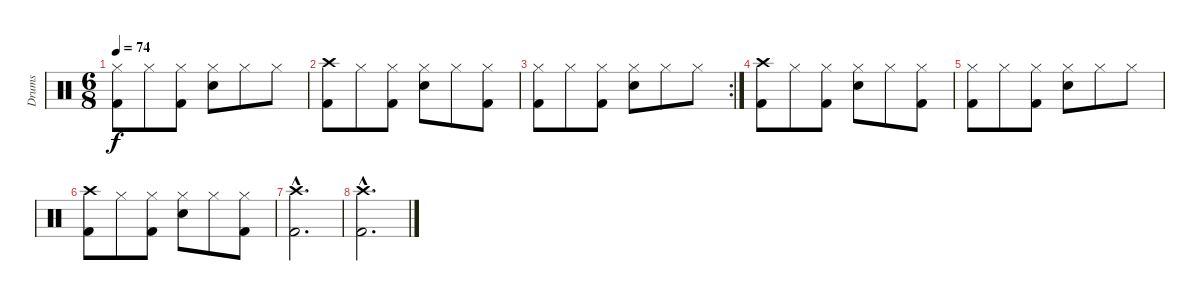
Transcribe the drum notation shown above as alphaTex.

\track ("Drums" "Drums") {instrument percussion}
\staff {score}
\articulation defaults
\ts (6 8)
\tempo 74
\clef neutral
\ks c
("Hi-Hat (closed)" "Kick (hit) 2").8{dy f} "Hi-Hat (closed)".8 ("Hi-Hat (closed)" "Kick (hit) 2").8 ("Hi-Hat (closed)" "Electric Snare (hit)").8 "Hi-Hat (closed)".8 "Hi-Hat (closed)".8 |
("Crash high (hit)" "Kick (hit) 2").8 "Hi-Hat (closed)".8 ("Hi-Hat (closed)" "Kick (hit) 2").8 ("Hi-Hat (closed)" "Electric Snare (hit)").8 "Hi-Hat (closed)".8 ("Hi-Hat (closed)" "Kick (hit) 2").8 |
\rc 2
("Hi-Hat (closed)" "Kick (hit) 2").8 "Hi-Hat (closed)".8 ("Hi-Hat (closed)" "Kick (hit) 2").8 ("Hi-Hat (closed)" "Electric Snare (hit)").8 "Hi-Hat (closed)".8 "Hi-Hat (closed)".8 |
("Crash high (hit)" "Kick (hit) 2").8 "Hi-Hat (closed)".8 ("Hi-Hat (closed)" "Kick (hit) 2").8 ("Hi-Hat (closed)" "Electric Snare (hit)").8 "Hi-Hat (closed)".8 ("Hi-Hat (closed)" "Kick (hit) 2").8 |
("Hi-Hat (closed)" "Kick (hit) 2").8 "Hi-Hat (closed)".8 ("Hi-Hat (closed)" "Kick (hit) 2").8 ("Hi-Hat (closed)" "Electric Snare (hit)").8 "Hi-Hat (closed)".8 "Hi-Hat (closed)".8 |
("Crash high (hit)" "Kick (hit) 2").8 "Hi-Hat (closed)".8 ("Hi-Hat (closed)" "Kick (hit) 2").8 ("Hi-Hat (closed)" "Electric Snare (hit)").8 "Hi-Hat (closed)".8 ("Hi-Hat (closed)" "Kick (hit) 2").8 |
("Crash high (hit)"{hac} "Kick (hit) 2"{hac}).2{d} |
("Crash high (hit)"{hac} "Kick (hit) 2"{hac}).2{d}
